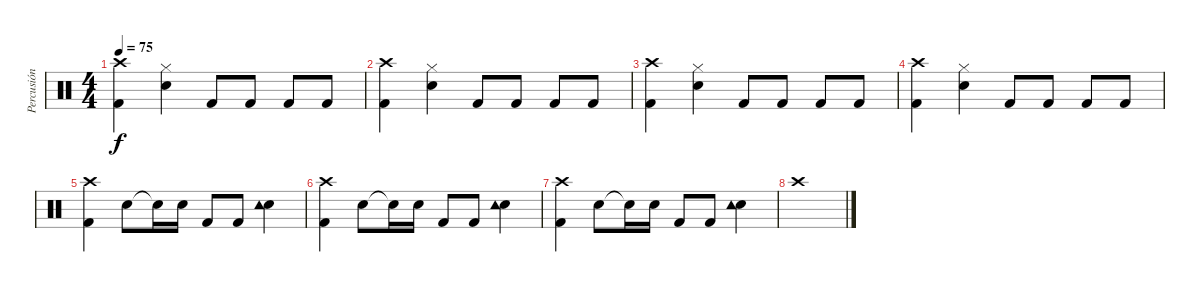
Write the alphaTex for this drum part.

\track ("Percusión" "Percusión") {instrument percussion}
\staff {score}
\articulation defaults
\ts (4 4)
\tempo 75
\clef neutral
\ks c
("Crash high (hit)" "Kick (hit) 2").4{dy f volume 16} ("Hi-Hat (closed)" "Snare (hit) 2").4 "Kick (hit) 2".8{volume 10} "Kick (hit) 2".8 "Kick (hit) 2".8 "Kick (hit) 2".8 |
("Crash high (hit)" "Kick (hit) 2").4{volume 16} ("Hi-Hat (closed)" "Snare (hit) 2").4 "Kick (hit) 2".8{volume 10} "Kick (hit) 2".8 "Kick (hit) 2".8 "Kick (hit) 2".8 |
("Crash high (hit)" "Kick (hit) 2").4{volume 16} ("Hi-Hat (closed)" "Snare (hit) 2").4 "Kick (hit) 2".8{volume 10} "Kick (hit) 2".8 "Kick (hit) 2".8 "Kick (hit) 2".8 |
("Crash high (hit)" "Kick (hit) 2").4{volume 16} ("Hi-Hat (closed)" "Snare (hit) 2").4 "Kick (hit) 2".8{volume 10} "Kick (hit) 2".8 "Kick (hit) 2".8 "Kick (hit) 2".8 |
("Kick (hit) 2" "Crash high (hit)").4{volume 14} "Snare (hit) 2".8 "Snare (hit)"{t}.16 "Snare (hit) 2".16 "Kick (hit) 2".8 "Kick (hit) 2".8 ("Snare (hit) 2" "Tambourine (hit)").4 |
("Kick (hit) 2" "Crash high (hit)").4 "Snare (hit) 2".8 "Snare (hit)"{t}.16 "Snare (hit) 2".16 "Kick (hit) 2".8 "Kick (hit) 2".8 ("Snare (hit) 2" "Tambourine (hit)").4 |
("Kick (hit) 2" "Crash high (hit)").4 "Snare (hit) 2".8 "Snare (hit)"{t}.16 "Snare (hit) 2".16 "Kick (hit) 2".8 "Kick (hit) 2".8 ("Snare (hit) 2" "Tambourine (hit)").4 |
"Crash high (hit)".1
